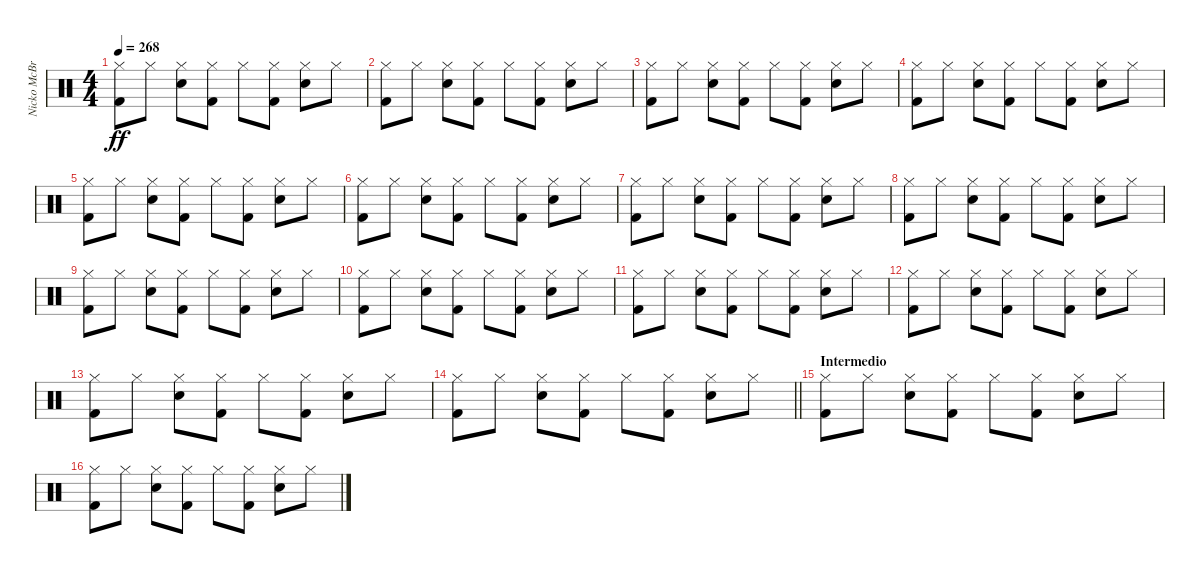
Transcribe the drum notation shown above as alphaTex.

\track ("Nicko McBrain" "Nicko McBr") {instrument percussion}
\staff {score}
\articulation defaults
\ts (4 4)
\tempo 268
\clef neutral
\ks c
("Kick (hit) 2" "Hi-Hat (closed)").8{dy ff} "Hi-Hat (closed)".8 ("Snare (hit) 2" "Hi-Hat (closed)").8 ("Kick (hit) 2" "Hi-Hat (closed)").8 "Hi-Hat (closed)".8 ("Kick (hit) 2" "Hi-Hat (closed)").8 ("Snare (hit) 2" "Hi-Hat (closed)").8 "Hi-Hat (closed)".8 |
("Kick (hit) 2" "Hi-Hat (closed)").8 "Hi-Hat (closed)".8 ("Snare (hit) 2" "Hi-Hat (closed)").8 ("Kick (hit) 2" "Hi-Hat (closed)").8 "Hi-Hat (closed)".8 ("Kick (hit) 2" "Hi-Hat (closed)").8 ("Snare (hit) 2" "Hi-Hat (closed)").8 "Hi-Hat (closed)".8 |
("Kick (hit) 2" "Hi-Hat (closed)").8 "Hi-Hat (closed)".8 ("Snare (hit) 2" "Hi-Hat (closed)").8 ("Kick (hit) 2" "Hi-Hat (closed)").8 "Hi-Hat (closed)".8 ("Kick (hit) 2" "Hi-Hat (closed)").8 ("Snare (hit) 2" "Hi-Hat (closed)").8 "Hi-Hat (closed)".8 |
("Kick (hit) 2" "Hi-Hat (closed)").8 "Hi-Hat (closed)".8 ("Snare (hit) 2" "Hi-Hat (closed)").8 ("Kick (hit) 2" "Hi-Hat (closed)").8 "Hi-Hat (closed)".8 ("Kick (hit) 2" "Hi-Hat (closed)").8 ("Snare (hit) 2" "Hi-Hat (closed)").8 "Hi-Hat (closed)".8 |
("Kick (hit) 2" "Hi-Hat (closed)").8 "Hi-Hat (closed)".8 ("Snare (hit) 2" "Hi-Hat (closed)").8 ("Kick (hit) 2" "Hi-Hat (closed)").8 "Hi-Hat (closed)".8 ("Kick (hit) 2" "Hi-Hat (closed)").8 ("Snare (hit) 2" "Hi-Hat (closed)").8 "Hi-Hat (closed)".8 |
("Kick (hit) 2" "Hi-Hat (closed)").8 "Hi-Hat (closed)".8 ("Snare (hit) 2" "Hi-Hat (closed)").8 ("Kick (hit) 2" "Hi-Hat (closed)").8 "Hi-Hat (closed)".8 ("Kick (hit) 2" "Hi-Hat (closed)").8 ("Snare (hit) 2" "Hi-Hat (closed)").8 "Hi-Hat (closed)".8 |
("Kick (hit) 2" "Hi-Hat (closed)").8 "Hi-Hat (closed)".8 ("Snare (hit) 2" "Hi-Hat (closed)").8 ("Kick (hit) 2" "Hi-Hat (closed)").8 "Hi-Hat (closed)".8 ("Kick (hit) 2" "Hi-Hat (closed)").8 ("Snare (hit) 2" "Hi-Hat (closed)").8 "Hi-Hat (closed)".8 |
("Kick (hit) 2" "Hi-Hat (closed)").8 "Hi-Hat (closed)".8 ("Snare (hit) 2" "Hi-Hat (closed)").8 ("Kick (hit) 2" "Hi-Hat (closed)").8 "Hi-Hat (closed)".8 ("Kick (hit) 2" "Hi-Hat (closed)").8 ("Snare (hit) 2" "Hi-Hat (closed)").8 "Hi-Hat (closed)".8 |
("Kick (hit) 2" "Hi-Hat (closed)").8 "Hi-Hat (closed)".8 ("Snare (hit) 2" "Hi-Hat (closed)").8 ("Kick (hit) 2" "Hi-Hat (closed)").8 "Hi-Hat (closed)".8 ("Kick (hit) 2" "Hi-Hat (closed)").8 ("Snare (hit) 2" "Hi-Hat (closed)").8 "Hi-Hat (closed)".8 |
("Kick (hit) 2" "Hi-Hat (closed)").8 "Hi-Hat (closed)".8 ("Snare (hit) 2" "Hi-Hat (closed)").8 ("Kick (hit) 2" "Hi-Hat (closed)").8 "Hi-Hat (closed)".8 ("Kick (hit) 2" "Hi-Hat (closed)").8 ("Snare (hit) 2" "Hi-Hat (closed)").8 "Hi-Hat (closed)".8 |
("Kick (hit) 2" "Hi-Hat (closed)").8 "Hi-Hat (closed)".8 ("Snare (hit) 2" "Hi-Hat (closed)").8 ("Kick (hit) 2" "Hi-Hat (closed)").8 "Hi-Hat (closed)".8 ("Kick (hit) 2" "Hi-Hat (closed)").8 ("Snare (hit) 2" "Hi-Hat (closed)").8 "Hi-Hat (closed)".8 |
("Kick (hit) 2" "Hi-Hat (closed)").8 "Hi-Hat (closed)".8 ("Snare (hit) 2" "Hi-Hat (closed)").8 ("Kick (hit) 2" "Hi-Hat (closed)").8 "Hi-Hat (closed)".8 ("Kick (hit) 2" "Hi-Hat (closed)").8 ("Snare (hit) 2" "Hi-Hat (closed)").8 "Hi-Hat (closed)".8 |
("Kick (hit) 2" "Hi-Hat (closed)").8 "Hi-Hat (closed)".8 ("Snare (hit) 2" "Hi-Hat (closed)").8 ("Kick (hit) 2" "Hi-Hat (closed)").8 "Hi-Hat (closed)".8 ("Kick (hit) 2" "Hi-Hat (closed)").8 ("Snare (hit) 2" "Hi-Hat (closed)").8 "Hi-Hat (closed)".8 |
\barLineRight lightlight
("Kick (hit) 2" "Hi-Hat (closed)").8 "Hi-Hat (closed)".8 ("Snare (hit) 2" "Hi-Hat (closed)").8 ("Kick (hit) 2" "Hi-Hat (closed)").8 "Hi-Hat (closed)".8 ("Kick (hit) 2" "Hi-Hat (closed)").8 ("Snare (hit) 2" "Hi-Hat (closed)").8 "Hi-Hat (closed)".8 |
\section ("" "Intermedio")
("Kick (hit) 2" "Hi-Hat (closed)").8 "Hi-Hat (closed)".8 ("Snare (hit) 2" "Hi-Hat (closed)").8 ("Kick (hit) 2" "Hi-Hat (closed)").8 "Hi-Hat (closed)".8 ("Kick (hit) 2" "Hi-Hat (closed)").8 ("Snare (hit) 2" "Hi-Hat (closed)").8 "Hi-Hat (closed)".8 |
("Kick (hit) 2" "Hi-Hat (closed)").8 "Hi-Hat (closed)".8 ("Snare (hit) 2" "Hi-Hat (closed)").8 ("Kick (hit) 2" "Hi-Hat (closed)").8 "Hi-Hat (closed)".8 ("Kick (hit) 2" "Hi-Hat (closed)").8 ("Snare (hit) 2" "Hi-Hat (closed)").8 "Hi-Hat (closed)".8
